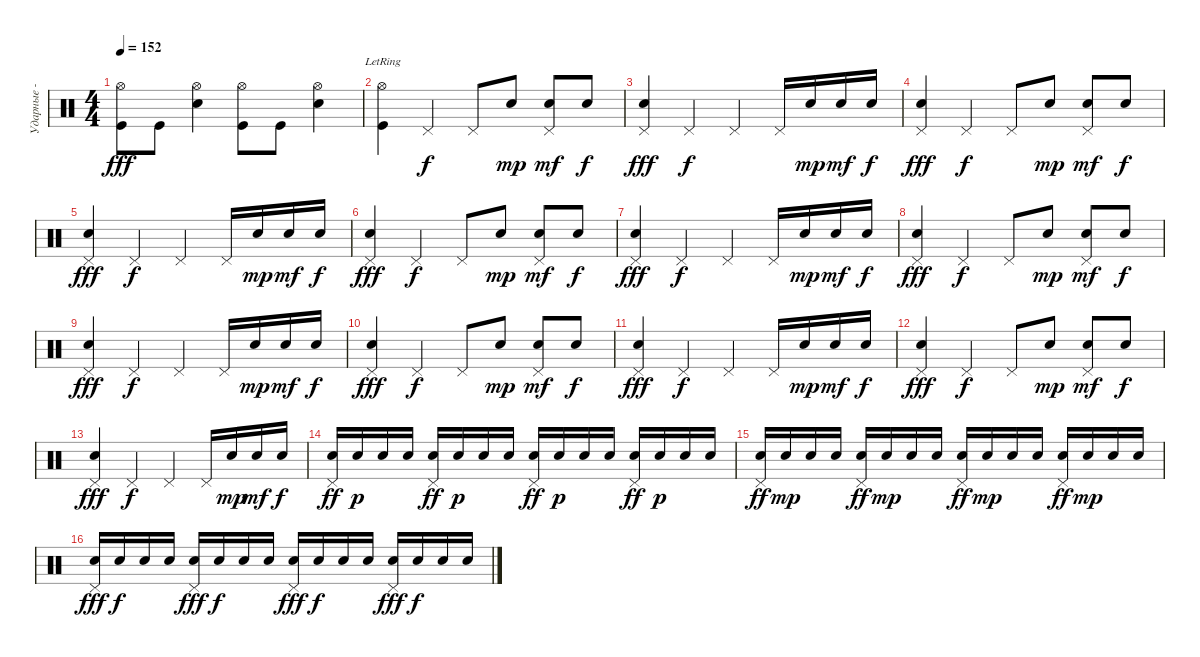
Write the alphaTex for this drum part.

\track ("Ударные - Трэвис" "Ударные - ") {instrument percussion}
\staff {score}
\articulation defaults
\ts (4 4)
\tempo 152
\clef neutral
\ks c
("Hi-Hat (open)" "Kick (hit)").8{dy fff} "Kick (hit)".8 ("Hi-Hat (open)" "Snare (hit) 2").4 ("Hi-Hat (open)" "Kick (hit)").8 "Kick (hit)".8 ("Hi-Hat (open)" "Snare (hit) 2").4 |
("Hi-Hat (open)"{lr} "Kick (hit)").4 "Pedal Hi-Hat (hit)".4{dy f} "Pedal Hi-Hat (hit)".8 "Snare (hit) 2".8{dy mp} ("Pedal Hi-Hat (hit)" "Snare (hit) 2").8{dy mf} "Snare (hit) 2".8{dy f} |
("Pedal Hi-Hat (hit)" "Snare (hit) 2").4{dy fff} "Pedal Hi-Hat (hit)".4{dy f} "Pedal Hi-Hat (hit)".4 "Pedal Hi-Hat (hit)".16 "Snare (hit) 2".16{dy mp} "Snare (hit) 2".16{dy mf} "Snare (hit) 2".16{dy f} |
("Pedal Hi-Hat (hit)" "Snare (hit) 2").4{dy fff} "Pedal Hi-Hat (hit)".4{dy f} "Pedal Hi-Hat (hit)".8 "Snare (hit) 2".8{dy mp} ("Pedal Hi-Hat (hit)" "Snare (hit) 2").8{dy mf} "Snare (hit) 2".8{dy f} |
("Pedal Hi-Hat (hit)" "Snare (hit) 2").4{dy fff} "Pedal Hi-Hat (hit)".4{dy f} "Pedal Hi-Hat (hit)".4 "Pedal Hi-Hat (hit)".16 "Snare (hit) 2".16{dy mp} "Snare (hit) 2".16{dy mf} "Snare (hit) 2".16{dy f} |
("Pedal Hi-Hat (hit)" "Snare (hit) 2").4{dy fff} "Pedal Hi-Hat (hit)".4{dy f} "Pedal Hi-Hat (hit)".8 "Snare (hit) 2".8{dy mp} ("Pedal Hi-Hat (hit)" "Snare (hit) 2").8{dy mf} "Snare (hit) 2".8{dy f} |
("Pedal Hi-Hat (hit)" "Snare (hit) 2").4{dy fff} "Pedal Hi-Hat (hit)".4{dy f} "Pedal Hi-Hat (hit)".4 "Pedal Hi-Hat (hit)".16 "Snare (hit) 2".16{dy mp} "Snare (hit) 2".16{dy mf} "Snare (hit) 2".16{dy f} |
("Pedal Hi-Hat (hit)" "Snare (hit) 2").4{dy fff} "Pedal Hi-Hat (hit)".4{dy f} "Pedal Hi-Hat (hit)".8 "Snare (hit) 2".8{dy mp} ("Pedal Hi-Hat (hit)" "Snare (hit) 2").8{dy mf} "Snare (hit) 2".8{dy f} |
("Pedal Hi-Hat (hit)" "Snare (hit) 2").4{dy fff} "Pedal Hi-Hat (hit)".4{dy f} "Pedal Hi-Hat (hit)".4 "Pedal Hi-Hat (hit)".16 "Snare (hit) 2".16{dy mp} "Snare (hit) 2".16{dy mf} "Snare (hit) 2".16{dy f} |
("Pedal Hi-Hat (hit)" "Snare (hit) 2").4{dy fff} "Pedal Hi-Hat (hit)".4{dy f} "Pedal Hi-Hat (hit)".8 "Snare (hit) 2".8{dy mp} ("Pedal Hi-Hat (hit)" "Snare (hit) 2").8{dy mf} "Snare (hit) 2".8{dy f} |
("Pedal Hi-Hat (hit)" "Snare (hit) 2").4{dy fff} "Pedal Hi-Hat (hit)".4{dy f} "Pedal Hi-Hat (hit)".4 "Pedal Hi-Hat (hit)".16 "Snare (hit) 2".16{dy mp} "Snare (hit) 2".16{dy mf} "Snare (hit) 2".16{dy f} |
("Pedal Hi-Hat (hit)" "Snare (hit) 2").4{dy fff} "Pedal Hi-Hat (hit)".4{dy f} "Pedal Hi-Hat (hit)".8 "Snare (hit) 2".8{dy mp} ("Pedal Hi-Hat (hit)" "Snare (hit) 2").8{dy mf} "Snare (hit) 2".8{dy f} |
("Pedal Hi-Hat (hit)" "Snare (hit) 2").4{dy fff} "Pedal Hi-Hat (hit)".4{dy f} "Pedal Hi-Hat (hit)".4 "Pedal Hi-Hat (hit)".16 "Snare (hit) 2".16{dy mp} "Snare (hit) 2".16{dy mf} "Snare (hit) 2".16{dy f} |
("Pedal Hi-Hat (hit)" "Snare (hit) 2").16{dy ff} "Snare (hit) 2".16{dy p} "Snare (hit) 2".16 "Snare (hit) 2".16 ("Pedal Hi-Hat (hit)" "Snare (hit) 2").16{dy ff} "Snare (hit) 2".16{dy p} "Snare (hit) 2".16 "Snare (hit) 2".16 ("Pedal Hi-Hat (hit)" "Snare (hit) 2").16{dy ff} "Snare (hit) 2".16{dy p} "Snare (hit) 2".16 "Snare (hit) 2".16 ("Pedal Hi-Hat (hit)" "Snare (hit) 2").16{dy ff} "Snare (hit) 2".16{dy p} "Snare (hit) 2".16 "Snare (hit) 2".16 |
("Pedal Hi-Hat (hit)" "Snare (hit) 2").16{dy ff} "Snare (hit) 2".16{dy mp} "Snare (hit) 2".16 "Snare (hit) 2".16 ("Pedal Hi-Hat (hit)" "Snare (hit) 2").16{dy ff} "Snare (hit) 2".16{dy mp} "Snare (hit) 2".16 "Snare (hit) 2".16 ("Pedal Hi-Hat (hit)" "Snare (hit) 2").16{dy ff} "Snare (hit) 2".16{dy mp} "Snare (hit) 2".16 "Snare (hit) 2".16 ("Pedal Hi-Hat (hit)" "Snare (hit) 2").16{dy ff} "Snare (hit) 2".16{dy mp} "Snare (hit) 2".16 "Snare (hit) 2".16 |
("Pedal Hi-Hat (hit)" "Snare (hit) 2").16{dy fff} "Snare (hit) 2".16{dy f} "Snare (hit) 2".16 "Snare (hit) 2".16 ("Pedal Hi-Hat (hit)" "Snare (hit) 2").16{dy fff} "Snare (hit) 2".16{dy f} "Snare (hit) 2".16 "Snare (hit) 2".16 ("Pedal Hi-Hat (hit)" "Snare (hit) 2").16{dy fff} "Snare (hit) 2".16{dy f} "Snare (hit) 2".16 "Snare (hit) 2".16 ("Pedal Hi-Hat (hit)" "Snare (hit) 2").16{dy fff} "Snare (hit) 2".16{dy f} "Snare (hit) 2".16 "Snare (hit) 2".16
